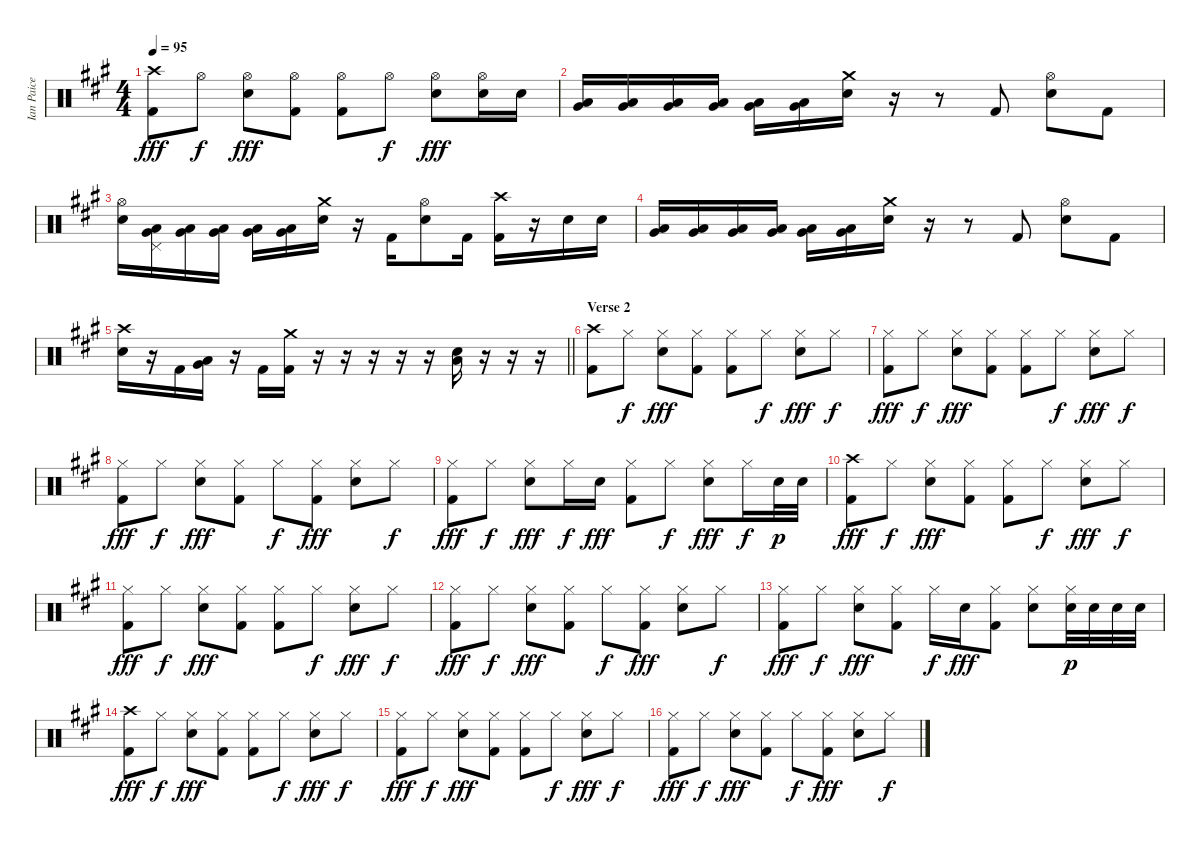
\track ("Ian Paice" "Ian Paice") {instrument percussion}
\staff {score}
\articulation defaults
\ts (4 4)
\tempo 95
\clef neutral
\ks f#minor
("Crash high (hit)" "Kick (hit) 2").8{dy fff} "Hi-Hat (open)".8{dy f} ("Hi-Hat (open)" "Snare (hit) 2").8{dy fff} ("Hi-Hat (open)" "Kick (hit) 2").8 ("Hi-Hat (open)" "Kick (hit) 2").8 "Hi-Hat (open)".8{dy f} ("Hi-Hat (open)" "Snare (hit) 2").8{dy fff} ("Hi-Hat (open)" "Snare (hit) 2").16 "Snare (hit) 2".16 |
("Low Floor Tom (hit)" "Very Low Tom (hit)").16 ("Low Floor Tom (hit)" "Very Low Tom (hit)").16 ("Low Floor Tom (hit)" "Very Low Tom (hit)").16 ("Low Floor Tom (hit)" "Very Low Tom (hit)").16 ("Low Floor Tom (hit)" "Very Low Tom (hit)").16 ("Low Floor Tom (hit)" "Very Low Tom (hit)").16 ("Crash medium (hit)" "Snare (hit) 2").16 r.16 r.8 "Kick (hit) 2".8 ("Hi-Hat (open)" "Snare (hit) 2").8 "Kick (hit) 2".8 |
("Hi-Hat (open)" "Snare (hit) 2").16 ("Pedal Hi-Hat (hit)" "Low Floor Tom (hit)" "Very Low Tom (hit)").16 ("Low Floor Tom (hit)" "Very Low Tom (hit)").16 ("Low Floor Tom (hit)" "Very Low Tom (hit)").16 ("Low Floor Tom (hit)" "Very Low Tom (hit)").16 ("Low Floor Tom (hit)" "Very Low Tom (hit)").16 ("Crash medium (hit)" "Snare (hit) 2").16 r.16 "Kick (hit) 2".16 ("Hi-Hat (open)" "Snare (hit) 2").8 "Kick (hit) 2".16 ("Crash high (hit)" "Kick (hit) 2").16 r.16 "Snare (hit) 2".16 "Snare (hit) 2".16 |
("Low Floor Tom (hit)" "Very Low Tom (hit)").16 ("Low Floor Tom (hit)" "Very Low Tom (hit)").16 ("Low Floor Tom (hit)" "Very Low Tom (hit)").16 ("Low Floor Tom (hit)" "Very Low Tom (hit)").16 ("Low Floor Tom (hit)" "Very Low Tom (hit)").16 ("Low Floor Tom (hit)" "Very Low Tom (hit)").16 ("Crash medium (hit)" "Snare (hit) 2").16 r.16 r.8 "Kick (hit) 2".8 ("Hi-Hat (open)" "Snare (hit) 2").8 "Kick (hit) 2".8 |
\barLineRight lightlight
("Crash high (hit)" "Snare (hit) 2").16 r.16 "Kick (hit) 2".16 ("Low Floor Tom (hit)" "Very Low Tom (hit)").16 r.16 "Kick (hit) 2".16 ("Crash medium (hit)" "Kick (hit) 2").16 r.16 r.16 r.16 r.16 r.16 ("Low Floor Tom (hit)" "Snare (hit) 2").16 r.16 r.16 r.16 |
\section ("" "Verse 2")
("Crash high (hit)" "Kick (hit) 2").8 "Hi-Hat (closed)".8{dy f} ("Hi-Hat (closed)" "Snare (hit) 2").8{dy fff} ("Hi-Hat (closed)" "Kick (hit) 2").8 ("Hi-Hat (closed)" "Kick (hit) 2").8 "Hi-Hat (closed)".8{dy f} ("Hi-Hat (closed)" "Snare (hit) 2").8{dy fff} "Hi-Hat (closed)".8{dy f} |
("Hi-Hat (closed)" "Kick (hit) 2").8{dy fff} "Hi-Hat (closed)".8{dy f} ("Hi-Hat (closed)" "Snare (hit) 2").8{dy fff} ("Hi-Hat (closed)" "Kick (hit) 2").8 ("Hi-Hat (closed)" "Kick (hit) 2").8 "Hi-Hat (closed)".8{dy f} ("Hi-Hat (closed)" "Snare (hit) 2").8{dy fff} "Hi-Hat (closed)".8{dy f} |
("Hi-Hat (closed)" "Kick (hit) 2").8{dy fff} "Hi-Hat (closed)".8{dy f} ("Hi-Hat (closed)" "Snare (hit) 2").8{dy fff} ("Hi-Hat (closed)" "Kick (hit) 2").8 "Hi-Hat (closed)".8{dy f} ("Hi-Hat (closed)" "Kick (hit) 2").8{dy fff} ("Hi-Hat (closed)" "Snare (hit) 2").8 "Hi-Hat (closed)".8{dy f} |
("Hi-Hat (closed)" "Kick (hit) 2").8{dy fff} "Hi-Hat (closed)".8{dy f} ("Hi-Hat (closed)" "Snare (hit) 2").8{dy fff} "Hi-Hat (closed)".16{dy f} "Snare (hit) 2".16{dy fff} ("Hi-Hat (closed)" "Kick (hit) 2").8 "Hi-Hat (closed)".8{dy f} ("Hi-Hat (closed)" "Snare (hit) 2").8{dy fff} "Hi-Hat (closed)".16{dy f} "Snare (hit) 2".32{dy p} "Snare (hit) 2".32 |
("Crash high (hit)" "Kick (hit) 2").8{dy fff} "Hi-Hat (closed)".8{dy f} ("Hi-Hat (closed)" "Snare (hit) 2").8{dy fff} ("Hi-Hat (closed)" "Kick (hit) 2").8 ("Hi-Hat (closed)" "Kick (hit) 2").8 "Hi-Hat (closed)".8{dy f} ("Hi-Hat (closed)" "Snare (hit) 2").8{dy fff} "Hi-Hat (closed)".8{dy f} |
("Hi-Hat (closed)" "Kick (hit) 2").8{dy fff} "Hi-Hat (closed)".8{dy f} ("Hi-Hat (closed)" "Snare (hit) 2").8{dy fff} ("Hi-Hat (closed)" "Kick (hit) 2").8 ("Hi-Hat (closed)" "Kick (hit) 2").8 "Hi-Hat (closed)".8{dy f} ("Hi-Hat (closed)" "Snare (hit) 2").8{dy fff} "Hi-Hat (closed)".8{dy f} |
("Hi-Hat (closed)" "Kick (hit) 2").8{dy fff} "Hi-Hat (closed)".8{dy f} ("Hi-Hat (closed)" "Snare (hit) 2").8{dy fff} ("Hi-Hat (closed)" "Kick (hit) 2").8 "Hi-Hat (closed)".8{dy f} ("Hi-Hat (closed)" "Kick (hit) 2").8{dy fff} ("Hi-Hat (closed)" "Snare (hit) 2").8 "Hi-Hat (closed)".8{dy f} |
("Hi-Hat (closed)" "Kick (hit) 2").8{dy fff} "Hi-Hat (closed)".8{dy f} ("Hi-Hat (closed)" "Snare (hit) 2").8{dy fff} ("Hi-Hat (closed)" "Kick (hit) 2").8 "Hi-Hat (closed)".16{dy f} "Snare (hit) 2".16{dy fff} ("Hi-Hat (closed)" "Kick (hit) 2").8 ("Hi-Hat (closed)" "Snare (hit) 2").8 ("Hi-Hat (closed)" "Snare (hit) 2").32{dy p} "Snare (hit) 2".32 "Snare (hit) 2".32 "Snare (hit) 2".32 |
("Crash high (hit)" "Kick (hit) 2").8{dy fff} "Hi-Hat (closed)".8{dy f} ("Hi-Hat (closed)" "Snare (hit) 2").8{dy fff} ("Hi-Hat (closed)" "Kick (hit) 2").8 ("Hi-Hat (closed)" "Kick (hit) 2").8 "Hi-Hat (closed)".8{dy f} ("Hi-Hat (closed)" "Snare (hit) 2").8{dy fff} "Hi-Hat (closed)".8{dy f} |
("Hi-Hat (closed)" "Kick (hit) 2").8{dy fff} "Hi-Hat (closed)".8{dy f} ("Hi-Hat (closed)" "Snare (hit) 2").8{dy fff} ("Hi-Hat (closed)" "Kick (hit) 2").8 ("Hi-Hat (closed)" "Kick (hit) 2").8 "Hi-Hat (closed)".8{dy f} ("Hi-Hat (closed)" "Snare (hit) 2").8{dy fff} "Hi-Hat (closed)".8{dy f} |
("Hi-Hat (closed)" "Kick (hit) 2").8{dy fff} "Hi-Hat (closed)".8{dy f} ("Hi-Hat (closed)" "Snare (hit) 2").8{dy fff} ("Hi-Hat (closed)" "Kick (hit) 2").8 "Hi-Hat (closed)".8{dy f} ("Hi-Hat (closed)" "Kick (hit) 2").8{dy fff} ("Hi-Hat (closed)" "Snare (hit) 2").8 "Hi-Hat (closed)".8{dy f}
